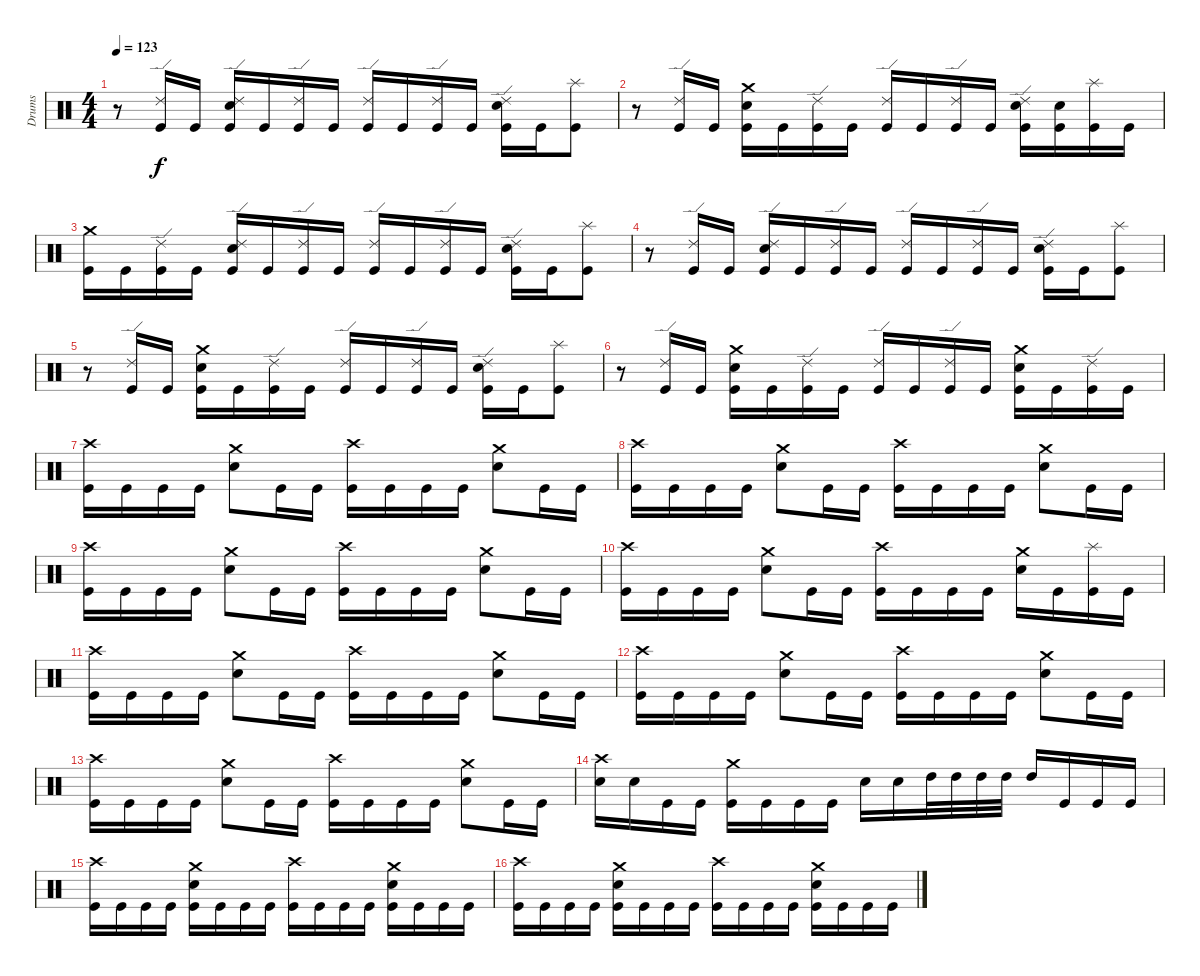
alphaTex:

\track ("Drums" "Drums") {instrument percussion}
\staff {score}
\articulation defaults
\ts (4 4)
\tempo 123
\clef neutral
\ks c
r.8{dy f} ("Ride (edge) 2" "Kick (hit)").16 "Kick (hit)".16 ("Ride (edge) 2" "Electric Snare (hit)" "Kick (hit)").16 "Kick (hit)".16 ("Ride (edge) 2" "Kick (hit)").16 "Kick (hit)".16 ("Ride (edge) 2" "Kick (hit)").16 "Kick (hit)".16 ("Ride (edge) 2" "Kick (hit)").16 "Kick (hit)".16 ("Ride (edge) 2" "Electric Snare (hit)" "Kick (hit)").16 "Kick (hit)".16 ("Splash (hit)" "Kick (hit)").8 |
r.8 ("Ride (edge) 2" "Kick (hit)").16 "Kick (hit)".16 ("Crash medium (hit)" "Electric Snare (hit)" "Kick (hit)").16 "Kick (hit)".16 ("Ride (edge) 2" "Kick (hit)").16 "Kick (hit)".16 ("Ride (edge) 2" "Kick (hit)").16 "Kick (hit)".16 ("Ride (edge) 2" "Kick (hit)").16 "Kick (hit)".16 ("Ride (edge) 2" "Electric Snare (hit)" "Kick (hit)").16 ("Electric Snare (hit)" "Kick (hit)").16 ("Splash (hit)" "Kick (hit)").16 "Kick (hit)".16 |
("Crash medium (hit)" "Kick (hit)").16 "Kick (hit)".16 ("Ride (edge) 2" "Kick (hit)").16 "Kick (hit)".16 ("Ride (edge) 2" "Electric Snare (hit)" "Kick (hit)").16 "Kick (hit)".16 ("Ride (edge) 2" "Kick (hit)").16 "Kick (hit)".16 ("Ride (edge) 2" "Kick (hit)").16 "Kick (hit)".16 ("Ride (edge) 2" "Kick (hit)").16 "Kick (hit)".16 ("Ride (edge) 2" "Electric Snare (hit)" "Kick (hit)").16 "Kick (hit)".16 ("Splash (hit)" "Kick (hit)").8 |
r.8 ("Ride (edge) 2" "Kick (hit)").16 "Kick (hit)".16 ("Ride (edge) 2" "Electric Snare (hit)" "Kick (hit)").16 "Kick (hit)".16 ("Ride (edge) 2" "Kick (hit)").16 "Kick (hit)".16 ("Ride (edge) 2" "Kick (hit)").16 "Kick (hit)".16 ("Ride (edge) 2" "Kick (hit)").16 "Kick (hit)".16 ("Ride (edge) 2" "Electric Snare (hit)" "Kick (hit)").16 "Kick (hit)".16 ("Splash (hit)" "Kick (hit)").8 |
r.8 ("Ride (edge) 2" "Kick (hit)").16 "Kick (hit)".16 ("Crash medium (hit)" "Electric Snare (hit)" "Kick (hit)").16 "Kick (hit)".16 ("Ride (edge) 2" "Kick (hit)").16 "Kick (hit)".16 ("Ride (edge) 2" "Kick (hit)").16 "Kick (hit)".16 ("Ride (edge) 2" "Kick (hit)").16 "Kick (hit)".16 ("Ride (edge) 2" "Electric Snare (hit)" "Kick (hit)").16 "Kick (hit)".16 ("Splash (hit)" "Kick (hit)").8 |
r.8 ("Ride (edge) 2" "Kick (hit)").16 "Kick (hit)".16 ("Crash medium (hit)" "Electric Snare (hit)" "Kick (hit)").16 "Kick (hit)".16 ("Ride (edge) 2" "Kick (hit)").16 "Kick (hit)".16 ("Ride (edge) 2" "Kick (hit)").16 "Kick (hit)".16 ("Ride (edge) 2" "Kick (hit)").16 "Kick (hit)".16 ("Crash medium (hit)" "Electric Snare (hit)" "Kick (hit)").16 "Kick (hit)".16 ("Ride (edge) 2" "Kick (hit)").16 "Kick (hit)".16 |
("Crash high (hit)" "Kick (hit)").16 "Kick (hit)".16 "Kick (hit)".16 "Kick (hit)".16 ("Crash medium (hit)" "Electric Snare (hit)").8 "Kick (hit)".16 "Kick (hit)".16 ("Crash high (hit)" "Kick (hit)").16 "Kick (hit)".16 "Kick (hit)".16 "Kick (hit)".16 ("Crash medium (hit)" "Electric Snare (hit)").8 "Kick (hit)".16 "Kick (hit)".16 |
("Crash high (hit)" "Kick (hit)").16 "Kick (hit)".16 "Kick (hit)".16 "Kick (hit)".16 ("Crash medium (hit)" "Electric Snare (hit)").8 "Kick (hit)".16 "Kick (hit)".16 ("Crash high (hit)" "Kick (hit)").16 "Kick (hit)".16 "Kick (hit)".16 "Kick (hit)".16 ("Crash medium (hit)" "Electric Snare (hit)").8 "Kick (hit)".16 "Kick (hit)".16 |
("Crash high (hit)" "Kick (hit)").16 "Kick (hit)".16 "Kick (hit)".16 "Kick (hit)".16 ("Crash medium (hit)" "Electric Snare (hit)").8 "Kick (hit)".16 "Kick (hit)".16 ("Crash high (hit)" "Kick (hit)").16 "Kick (hit)".16 "Kick (hit)".16 "Kick (hit)".16 ("Crash medium (hit)" "Electric Snare (hit)").8 "Kick (hit)".16 "Kick (hit)".16 |
("Crash high (hit)" "Kick (hit)").16 "Kick (hit)".16 "Kick (hit)".16 "Kick (hit)".16 ("Crash medium (hit)" "Electric Snare (hit)").8 "Kick (hit)".16 "Kick (hit)".16 ("Crash high (hit)" "Kick (hit)").16 "Kick (hit)".16 "Kick (hit)".16 "Kick (hit)".16 ("Crash medium (hit)" "Electric Snare (hit)").16 "Kick (hit)".16 ("Splash (hit)" "Kick (hit)").16 "Kick (hit)".16 |
("Crash high (hit)" "Kick (hit)").16 "Kick (hit)".16 "Kick (hit)".16 "Kick (hit)".16 ("Crash medium (hit)" "Electric Snare (hit)").8 "Kick (hit)".16 "Kick (hit)".16 ("Crash high (hit)" "Kick (hit)").16 "Kick (hit)".16 "Kick (hit)".16 "Kick (hit)".16 ("Crash medium (hit)" "Electric Snare (hit)").8 "Kick (hit)".16 "Kick (hit)".16 |
("Crash high (hit)" "Kick (hit)").16 "Kick (hit)".16 "Kick (hit)".16 "Kick (hit)".16 ("Crash medium (hit)" "Electric Snare (hit)").8 "Kick (hit)".16 "Kick (hit)".16 ("Crash high (hit)" "Kick (hit)").16 "Kick (hit)".16 "Kick (hit)".16 "Kick (hit)".16 ("Crash medium (hit)" "Electric Snare (hit)").8 "Kick (hit)".16 "Kick (hit)".16 |
("Crash high (hit)" "Kick (hit)").16 "Kick (hit)".16 "Kick (hit)".16 "Kick (hit)".16 ("Crash medium (hit)" "Electric Snare (hit)").8 "Kick (hit)".16 "Kick (hit)".16 ("Crash high (hit)" "Kick (hit)").16 "Kick (hit)".16 "Kick (hit)".16 "Kick (hit)".16 ("Crash medium (hit)" "Electric Snare (hit)").8 "Kick (hit)".16 "Kick (hit)".16 |
("Crash high (hit)" "Electric Snare (hit)").16 "Electric Snare (hit)".16 "Kick (hit)".16 "Kick (hit)".16 ("Crash medium (hit)" "Kick (hit)").16 "Kick (hit)".16 "Kick (hit)".16 "Kick (hit)".16 "Electric Snare (hit)".16 "Electric Snare (hit)".16 "High Tom (hit)".32 "High Tom (hit)".32 "High Tom (hit)".32 "High Tom (hit)".32 "High Tom (hit)".16 "Kick (hit)".16 "Kick (hit)".16 "Kick (hit)".16 |
("Crash high (hit)" "Kick (hit)").16 "Kick (hit)".16 "Kick (hit)".16 "Kick (hit)".16 ("Crash medium (hit)" "Electric Snare (hit)" "Kick (hit)").16 "Kick (hit)".16 "Kick (hit)".16 "Kick (hit)".16 ("Crash high (hit)" "Kick (hit)").16 "Kick (hit)".16 "Kick (hit)".16 "Kick (hit)".16 ("Crash medium (hit)" "Electric Snare (hit)" "Kick (hit)").16 "Kick (hit)".16 "Kick (hit)".16 "Kick (hit)".16 |
("Crash high (hit)" "Kick (hit)").16 "Kick (hit)".16 "Kick (hit)".16 "Kick (hit)".16 ("Crash medium (hit)" "Electric Snare (hit)" "Kick (hit)").16 "Kick (hit)".16 "Kick (hit)".16 "Kick (hit)".16 ("Crash high (hit)" "Kick (hit)").16 "Kick (hit)".16 "Kick (hit)".16 "Kick (hit)".16 ("Crash medium (hit)" "Electric Snare (hit)" "Kick (hit)").16 "Kick (hit)".16 "Kick (hit)".16 "Kick (hit)".16
